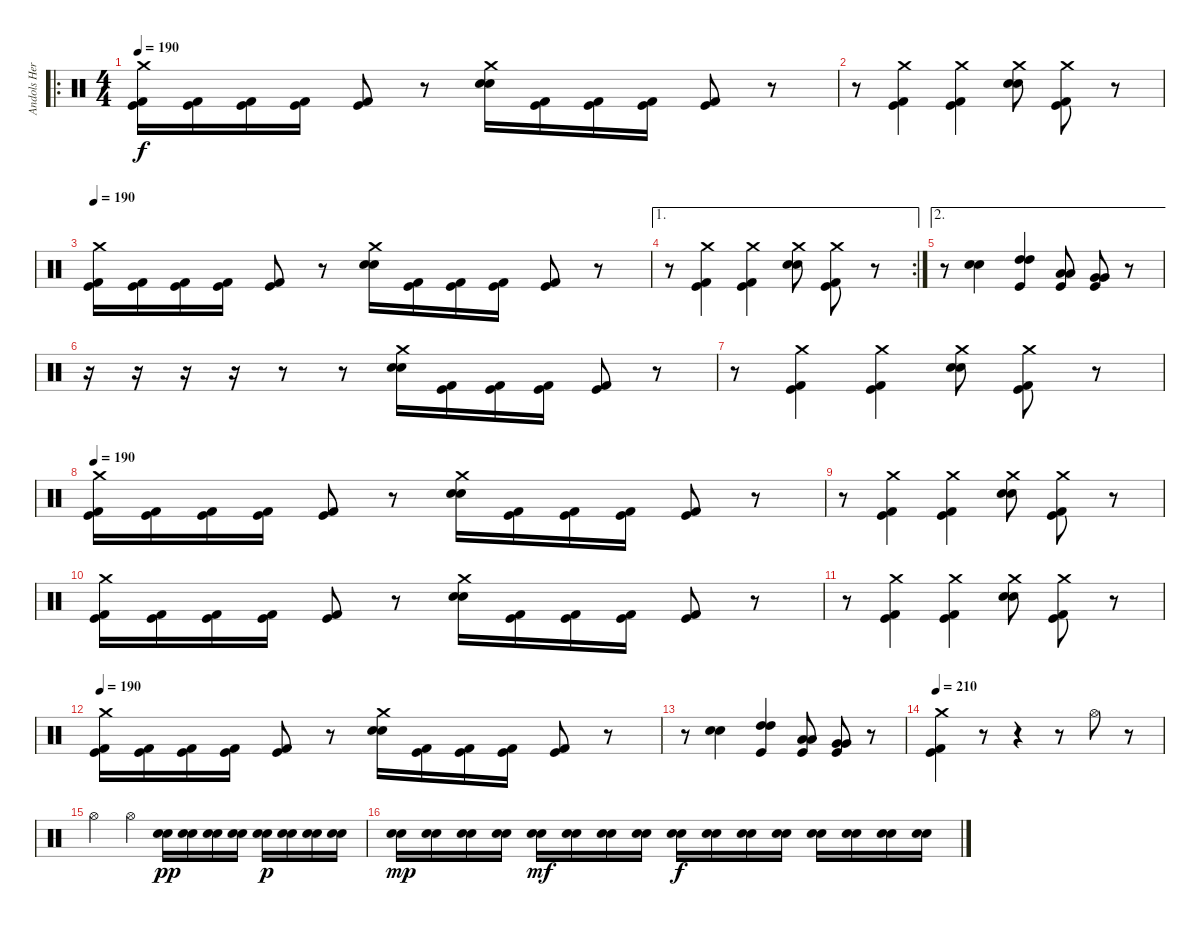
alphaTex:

\track ("Andols Herrick" "Andols Her") {instrument percussion}
\staff {score}
\articulation defaults
\ro
\ts (4 4)
\tempo 190
\clef neutral
\ks c
("Crash medium (hit)" "Kick (hit) 2" "Kick (hit)").16{dy f} ("Kick (hit) 2" "Kick (hit)").16 ("Kick (hit) 2" "Kick (hit)").16 ("Kick (hit) 2" "Kick (hit)").16 ("Kick (hit) 2" "Kick (hit)").8 r.8 ("Crash medium (hit)" "Electric Snare (hit)" "Snare (hit) 2").16 ("Kick (hit) 2" "Kick (hit)").16 ("Kick (hit) 2" "Kick (hit)").16 ("Kick (hit) 2" "Kick (hit)").16 ("Kick (hit) 2" "Kick (hit)").8 r.8 |
r.8 ("Crash medium (hit)" "Kick (hit) 2" "Kick (hit)").4 ("Crash medium (hit)" "Kick (hit) 2" "Kick (hit)").4 ("Crash medium (hit)" "Electric Snare (hit)" "Snare (hit) 2").8 ("Crash medium (hit)" "Kick (hit) 2" "Kick (hit)").8 r.8 |
\tempo 190
("Crash medium (hit)" "Kick (hit) 2" "Kick (hit)").16 ("Kick (hit) 2" "Kick (hit)").16 ("Kick (hit) 2" "Kick (hit)").16 ("Kick (hit) 2" "Kick (hit)").16 ("Kick (hit) 2" "Kick (hit)").8 r.8 ("Crash medium (hit)" "Electric Snare (hit)" "Snare (hit) 2").16 ("Kick (hit) 2" "Kick (hit)").16 ("Kick (hit) 2" "Kick (hit)").16 ("Kick (hit) 2" "Kick (hit)").16 ("Kick (hit) 2" "Kick (hit)").8 r.8 |
\ae 1
\rc 2
r.8 ("Crash medium (hit)" "Kick (hit) 2" "Kick (hit)").4 ("Crash medium (hit)" "Kick (hit) 2" "Kick (hit)").4 ("Crash medium (hit)" "Electric Snare (hit)" "Snare (hit) 2").8 ("Crash medium (hit)" "Kick (hit) 2" "Kick (hit)").8 r.8 |
\ae 2
r.8 ("Electric Snare (hit)" "Snare (hit) 2").4 ("High Tom (hit)" "High Tom (hit)" "Kick (hit)").4 ("Low Tom (hit)" "Low Tom (hit)" "Kick (hit)").8 ("Very Low Tom (hit)" "Very Low Tom (hit)" "Kick (hit)").8 r.8 |
r.16 r.16 r.16 r.16 r.8 r.8 ("Crash medium (hit)" "Electric Snare (hit)" "Snare (hit) 2").16 ("Kick (hit) 2" "Kick (hit)").16 ("Kick (hit) 2" "Kick (hit)").16 ("Kick (hit) 2" "Kick (hit)").16 ("Kick (hit) 2" "Kick (hit)").8 r.8 |
r.8 ("Crash medium (hit)" "Kick (hit) 2" "Kick (hit)").4 ("Crash medium (hit)" "Kick (hit) 2" "Kick (hit)").4 ("Crash medium (hit)" "Electric Snare (hit)" "Snare (hit) 2").8 ("Crash medium (hit)" "Kick (hit) 2" "Kick (hit)").8 r.8 |
\tempo 190
("Crash medium (hit)" "Kick (hit) 2" "Kick (hit)").16 ("Kick (hit) 2" "Kick (hit)").16 ("Kick (hit) 2" "Kick (hit)").16 ("Kick (hit) 2" "Kick (hit)").16 ("Kick (hit) 2" "Kick (hit)").8 r.8 ("Crash medium (hit)" "Electric Snare (hit)" "Snare (hit) 2").16 ("Kick (hit) 2" "Kick (hit)").16 ("Kick (hit) 2" "Kick (hit)").16 ("Kick (hit) 2" "Kick (hit)").16 ("Kick (hit) 2" "Kick (hit)").8 r.8 |
r.8 ("Crash medium (hit)" "Kick (hit) 2" "Kick (hit)").4 ("Crash medium (hit)" "Kick (hit) 2" "Kick (hit)").4 ("Crash medium (hit)" "Electric Snare (hit)" "Snare (hit) 2").8 ("Crash medium (hit)" "Kick (hit) 2" "Kick (hit)").8 r.8 |
("Crash medium (hit)" "Kick (hit) 2" "Kick (hit)").16 ("Kick (hit) 2" "Kick (hit)").16 ("Kick (hit) 2" "Kick (hit)").16 ("Kick (hit) 2" "Kick (hit)").16 ("Kick (hit) 2" "Kick (hit)").8 r.8 ("Crash medium (hit)" "Electric Snare (hit)" "Snare (hit) 2").16 ("Kick (hit) 2" "Kick (hit)").16 ("Kick (hit) 2" "Kick (hit)").16 ("Kick (hit) 2" "Kick (hit)").16 ("Kick (hit) 2" "Kick (hit)").8 r.8 |
r.8 ("Crash medium (hit)" "Kick (hit) 2" "Kick (hit)").4 ("Crash medium (hit)" "Kick (hit) 2" "Kick (hit)").4 ("Crash medium (hit)" "Electric Snare (hit)" "Snare (hit) 2").8 ("Crash medium (hit)" "Kick (hit) 2" "Kick (hit)").8 r.8 |
\tempo 190
("Crash medium (hit)" "Kick (hit) 2" "Kick (hit)").16 ("Kick (hit) 2" "Kick (hit)").16 ("Kick (hit) 2" "Kick (hit)").16 ("Kick (hit) 2" "Kick (hit)").16 ("Kick (hit) 2" "Kick (hit)").8 r.8 ("Crash medium (hit)" "Electric Snare (hit)" "Snare (hit) 2").16 ("Kick (hit) 2" "Kick (hit)").16 ("Kick (hit) 2" "Kick (hit)").16 ("Kick (hit) 2" "Kick (hit)").16 ("Kick (hit) 2" "Kick (hit)").8 r.8 |
r.8 ("Electric Snare (hit)" "Snare (hit) 2").4 ("High Tom (hit)" "High Tom (hit)" "Kick (hit)").4 ("Low Tom (hit)" "Low Tom (hit)" "Kick (hit)").8 ("Very Low Tom (hit)" "Very Low Tom (hit)" "Kick (hit)").8 r.8 |
\tempo 210
("Crash medium (hit)" "Kick (hit) 2" "Kick (hit)").4 r.8 r.4 r.8 "Hi-Hat (open)".8 r.8 |
"Hi-Hat (open)".4 "Hi-Hat (open)".4 ("Snare (hit) 2" "Electric Snare (hit)").16{dy pp} ("Snare (hit) 2" "Electric Snare (hit)").16 ("Snare (hit) 2" "Electric Snare (hit)").16 ("Snare (hit) 2" "Electric Snare (hit)").16 ("Snare (hit) 2" "Electric Snare (hit)").16{dy p} ("Snare (hit) 2" "Electric Snare (hit)").16 ("Snare (hit) 2" "Electric Snare (hit)").16 ("Snare (hit) 2" "Electric Snare (hit)").16 |
("Snare (hit) 2" "Electric Snare (hit)").16{dy mp} ("Snare (hit) 2" "Electric Snare (hit)").16 ("Snare (hit) 2" "Electric Snare (hit)").16 ("Snare (hit) 2" "Electric Snare (hit)").16 ("Snare (hit) 2" "Electric Snare (hit)").16{dy mf} ("Snare (hit) 2" "Electric Snare (hit)").16 ("Snare (hit) 2" "Electric Snare (hit)").16 ("Snare (hit) 2" "Electric Snare (hit)").16 ("Snare (hit) 2" "Electric Snare (hit)").16{dy f} ("Snare (hit) 2" "Electric Snare (hit)").16 ("Snare (hit) 2" "Electric Snare (hit)").16 ("Snare (hit) 2" "Electric Snare (hit)").16 ("Snare (hit) 2" "Electric Snare (hit)").16 ("Snare (hit) 2" "Electric Snare (hit)").16 ("Snare (hit) 2" "Electric Snare (hit)").16 ("Snare (hit) 2" "Electric Snare (hit)").16
